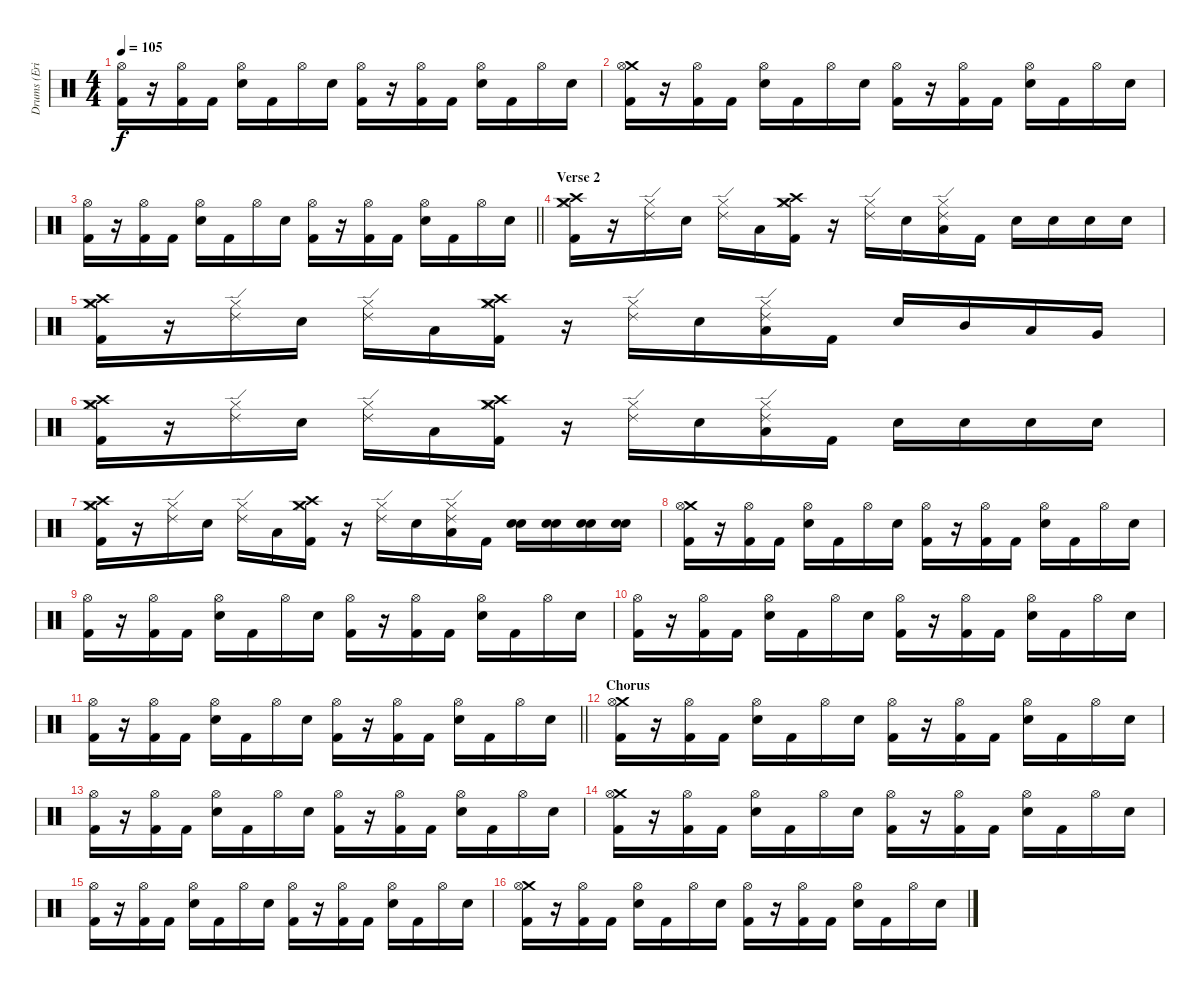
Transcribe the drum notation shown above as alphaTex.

\track ("Drums (Eric Kretz)" "Drums (Eri") {instrument percussion}
\staff {score}
\articulation defaults
\ts (4 4)
\tempo 105
\clef neutral
\ks c
("Hi-Hat (open)" "Kick (hit) 2").16{dy f} r.16 ("Hi-Hat (open)" "Kick (hit) 2").16 "Kick (hit) 2".16 ("Hi-Hat (open)" "Electric Snare (hit)").16 "Kick (hit) 2".16 "Hi-Hat (open)".16 "Electric Snare (hit)".16 ("Hi-Hat (open)" "Kick (hit) 2").16 r.16 ("Hi-Hat (open)" "Kick (hit) 2").16 "Kick (hit) 2".16 ("Hi-Hat (open)" "Electric Snare (hit)").16 "Kick (hit) 2".16 "Hi-Hat (open)".16 "Electric Snare (hit)".16 |
("Crash medium (hit)" "Hi-Hat (open)" "Kick (hit) 2").16 r.16 ("Hi-Hat (open)" "Kick (hit) 2").16 "Kick (hit) 2".16 ("Hi-Hat (open)" "Electric Snare (hit)").16 "Kick (hit) 2".16 "Hi-Hat (open)".16 "Electric Snare (hit)".16 ("Hi-Hat (open)" "Kick (hit) 2").16 r.16 ("Hi-Hat (open)" "Kick (hit) 2").16 "Kick (hit) 2".16 ("Hi-Hat (open)" "Electric Snare (hit)").16 "Kick (hit) 2".16 "Hi-Hat (open)".16 "Electric Snare (hit)".16 |
\barLineRight lightlight
("Hi-Hat (open)" "Kick (hit) 2").16 r.16 ("Hi-Hat (open)" "Kick (hit) 2").16 "Kick (hit) 2".16 ("Hi-Hat (open)" "Electric Snare (hit)").16 "Kick (hit) 2".16 "Hi-Hat (open)".16 "Electric Snare (hit)".16 ("Hi-Hat (open)" "Kick (hit) 2").16 r.16 ("Hi-Hat (open)" "Kick (hit) 2").16 "Kick (hit) 2".16 ("Hi-Hat (open)" "Electric Snare (hit)").16 "Kick (hit) 2".16 "Hi-Hat (open)".16 "Electric Snare (hit)".16 |
\section ("" "Verse 2")
("Crash medium (hit)" "Crash high (hit)" "Hi-Hat (closed)" "Kick (hit) 2").16 r.16 ("Ride (edge) 2" "Hi-Hat (closed)").16 "Electric Snare (hit)".16 ("Ride (edge) 2" "Hi-Hat (closed)").16 "Low Tom (hit)".16 ("Crash medium (hit)" "Crash high (hit)" "Hi-Hat (closed)" "Kick (hit) 2").16 r.16 ("Ride (edge) 2" "Hi-Hat (closed)").16 "Electric Snare (hit)".16 ("Ride (edge) 2" "Hi-Hat (closed)" "Low Tom (hit)").16 "Kick (hit) 2".16 "Electric Snare (hit)".16 "Electric Snare (hit)".16 "Electric Snare (hit)".16 "Electric Snare (hit)".16 |
("Crash medium (hit)" "Crash high (hit)" "Hi-Hat (closed)" "Kick (hit) 2").16 r.16 ("Ride (edge) 2" "Hi-Hat (closed)").16 "Electric Snare (hit)".16 ("Ride (edge) 2" "Hi-Hat (closed)").16 "Low Tom (hit)".16 ("Crash medium (hit)" "Crash high (hit)" "Hi-Hat (closed)" "Kick (hit) 2").16 r.16 ("Ride (edge) 2" "Hi-Hat (closed)").16 "Electric Snare (hit)".16 ("Ride (edge) 2" "Hi-Hat (closed)" "Low Tom (hit)").16 "Kick (hit) 2".16 "Electric Snare (hit)".16 "Mid Tom (hit)".16 "Low Tom (hit)".16 "Very Low Tom (hit)".16 |
("Crash medium (hit)" "Crash high (hit)" "Hi-Hat (closed)" "Kick (hit) 2").16 r.16 ("Ride (edge) 2" "Hi-Hat (closed)").16 "Electric Snare (hit)".16 ("Ride (edge) 2" "Hi-Hat (closed)").16 "Low Tom (hit)".16 ("Crash medium (hit)" "Crash high (hit)" "Hi-Hat (closed)" "Kick (hit) 2").16 r.16 ("Ride (edge) 2" "Hi-Hat (closed)").16 "Electric Snare (hit)".16 ("Ride (edge) 2" "Hi-Hat (closed)" "Low Tom (hit)").16 "Kick (hit) 2".16 "Electric Snare (hit)".16 "Electric Snare (hit)".16 "Electric Snare (hit)".16 "Electric Snare (hit)".16 |
("Crash medium (hit)" "Crash high (hit)" "Hi-Hat (closed)" "Kick (hit) 2").16 r.16 ("Ride (edge) 2" "Hi-Hat (closed)").16 "Electric Snare (hit)".16 ("Ride (edge) 2" "Hi-Hat (closed)").16 "Low Tom (hit)".16 ("Crash medium (hit)" "Crash high (hit)" "Hi-Hat (closed)" "Kick (hit) 2").16 r.16 ("Ride (edge) 2" "Hi-Hat (closed)").16 "Electric Snare (hit)".16 ("Ride (edge) 2" "Hi-Hat (closed)" "Low Tom (hit)").16 "Kick (hit) 2".16 ("Snare (hit) 2" "Electric Snare (hit)").16 ("Snare (hit) 2" "Electric Snare (hit)").16 ("Snare (hit) 2" "Electric Snare (hit)").16 ("Snare (hit) 2" "Electric Snare (hit)").16 |
("Crash medium (hit)" "Hi-Hat (open)" "Kick (hit) 2").16 r.16 ("Hi-Hat (open)" "Kick (hit) 2").16 "Kick (hit) 2".16 ("Hi-Hat (open)" "Electric Snare (hit)").16 "Kick (hit) 2".16 "Hi-Hat (open)".16 "Electric Snare (hit)".16 ("Hi-Hat (open)" "Kick (hit) 2").16 r.16 ("Hi-Hat (open)" "Kick (hit) 2").16 "Kick (hit) 2".16 ("Hi-Hat (open)" "Electric Snare (hit)").16 "Kick (hit) 2".16 "Hi-Hat (open)".16 "Electric Snare (hit)".16 |
("Hi-Hat (open)" "Kick (hit) 2").16 r.16 ("Hi-Hat (open)" "Kick (hit) 2").16 "Kick (hit) 2".16 ("Hi-Hat (open)" "Electric Snare (hit)").16 "Kick (hit) 2".16 "Hi-Hat (open)".16 "Electric Snare (hit)".16 ("Hi-Hat (open)" "Kick (hit) 2").16 r.16 ("Hi-Hat (open)" "Kick (hit) 2").16 "Kick (hit) 2".16 ("Hi-Hat (open)" "Electric Snare (hit)").16 "Kick (hit) 2".16 "Hi-Hat (open)".16 "Electric Snare (hit)".16 |
("Hi-Hat (open)" "Kick (hit) 2").16 r.16 ("Hi-Hat (open)" "Kick (hit) 2").16 "Kick (hit) 2".16 ("Hi-Hat (open)" "Electric Snare (hit)").16 "Kick (hit) 2".16 "Hi-Hat (open)".16 "Electric Snare (hit)".16 ("Hi-Hat (open)" "Kick (hit) 2").16 r.16 ("Hi-Hat (open)" "Kick (hit) 2").16 "Kick (hit) 2".16 ("Hi-Hat (open)" "Electric Snare (hit)").16 "Kick (hit) 2".16 "Hi-Hat (open)".16 "Electric Snare (hit)".16 |
\barLineRight lightlight
("Hi-Hat (open)" "Kick (hit) 2").16 r.16 ("Hi-Hat (open)" "Kick (hit) 2").16 "Kick (hit) 2".16 ("Hi-Hat (open)" "Electric Snare (hit)").16 "Kick (hit) 2".16 "Hi-Hat (open)".16 "Electric Snare (hit)".16 ("Hi-Hat (open)" "Kick (hit) 2").16 r.16 ("Hi-Hat (open)" "Kick (hit) 2").16 "Kick (hit) 2".16 ("Hi-Hat (open)" "Electric Snare (hit)").16 "Kick (hit) 2".16 "Hi-Hat (open)".16 "Electric Snare (hit)".16 |
\section ("" "Chorus")
("Crash medium (hit)" "Hi-Hat (open)" "Kick (hit) 2").16 r.16 ("Hi-Hat (open)" "Kick (hit) 2").16 "Kick (hit) 2".16 ("Hi-Hat (open)" "Electric Snare (hit)").16 "Kick (hit) 2".16 "Hi-Hat (open)".16 "Electric Snare (hit)".16 ("Hi-Hat (open)" "Kick (hit) 2").16 r.16 ("Hi-Hat (open)" "Kick (hit) 2").16 "Kick (hit) 2".16 ("Hi-Hat (open)" "Electric Snare (hit)").16 "Kick (hit) 2".16 "Hi-Hat (open)".16 "Electric Snare (hit)".16 |
("Hi-Hat (open)" "Kick (hit) 2").16 r.16 ("Hi-Hat (open)" "Kick (hit) 2").16 "Kick (hit) 2".16 ("Hi-Hat (open)" "Electric Snare (hit)").16 "Kick (hit) 2".16 "Hi-Hat (open)".16 "Electric Snare (hit)".16 ("Hi-Hat (open)" "Kick (hit) 2").16 r.16 ("Hi-Hat (open)" "Kick (hit) 2").16 "Kick (hit) 2".16 ("Hi-Hat (open)" "Electric Snare (hit)").16 "Kick (hit) 2".16 "Hi-Hat (open)".16 "Electric Snare (hit)".16 |
("Crash medium (hit)" "Hi-Hat (open)" "Kick (hit) 2").16 r.16 ("Hi-Hat (open)" "Kick (hit) 2").16 "Kick (hit) 2".16 ("Hi-Hat (open)" "Electric Snare (hit)").16 "Kick (hit) 2".16 "Hi-Hat (open)".16 "Electric Snare (hit)".16 ("Hi-Hat (open)" "Kick (hit) 2").16 r.16 ("Hi-Hat (open)" "Kick (hit) 2").16 "Kick (hit) 2".16 ("Hi-Hat (open)" "Electric Snare (hit)").16 "Kick (hit) 2".16 "Hi-Hat (open)".16 "Electric Snare (hit)".16 |
("Hi-Hat (open)" "Kick (hit) 2").16 r.16 ("Hi-Hat (open)" "Kick (hit) 2").16 "Kick (hit) 2".16 ("Hi-Hat (open)" "Electric Snare (hit)").16 "Kick (hit) 2".16 "Hi-Hat (open)".16 "Electric Snare (hit)".16 ("Hi-Hat (open)" "Kick (hit) 2").16 r.16 ("Hi-Hat (open)" "Kick (hit) 2").16 "Kick (hit) 2".16 ("Hi-Hat (open)" "Electric Snare (hit)").16 "Kick (hit) 2".16 "Hi-Hat (open)".16 "Electric Snare (hit)".16 |
("Crash medium (hit)" "Hi-Hat (open)" "Kick (hit) 2").16 r.16 ("Hi-Hat (open)" "Kick (hit) 2").16 "Kick (hit) 2".16 ("Hi-Hat (open)" "Electric Snare (hit)").16 "Kick (hit) 2".16 "Hi-Hat (open)".16 "Electric Snare (hit)".16 ("Hi-Hat (open)" "Kick (hit) 2").16 r.16 ("Hi-Hat (open)" "Kick (hit) 2").16 "Kick (hit) 2".16 ("Hi-Hat (open)" "Electric Snare (hit)").16 "Kick (hit) 2".16 "Hi-Hat (open)".16 "Electric Snare (hit)".16
